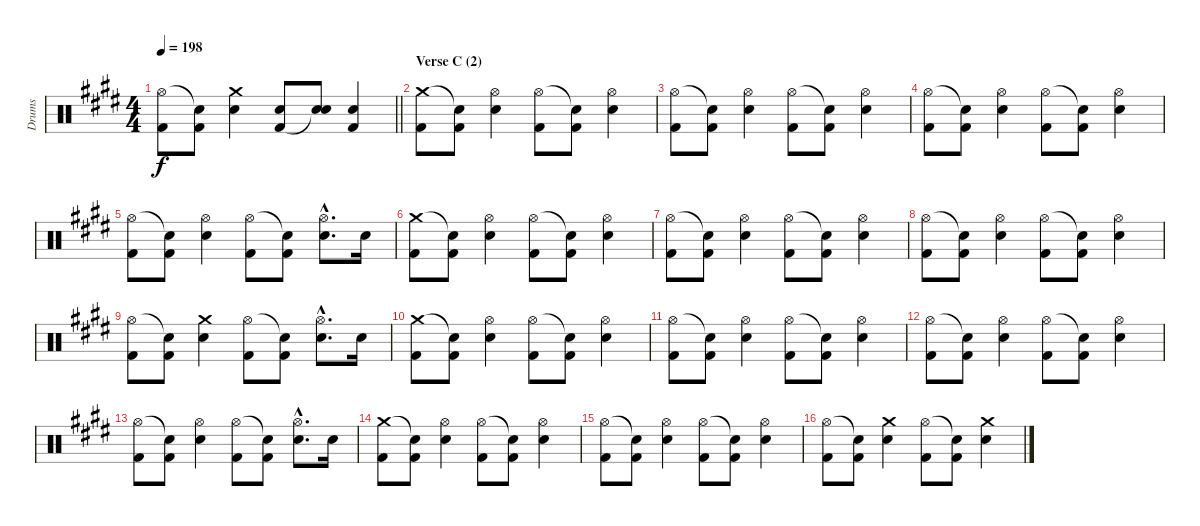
\track ("Drums" "Drums") {instrument percussion}
\staff {score}
\articulation defaults
\ts (4 4)
\tempo 198
\clef neutral
\barLineRight lightlight
\ks c#minor
("Hi-Hat (open)" "Kick (hit) 2").8{dy f} ("Snare (hit)"{t} "Kick (hit) 2").8 ("Crash medium (hit)" "Electric Snare (hit)").4 ("Electric Snare (hit)" "Kick (hit) 2").8 ("Electric Snare (hit)" "Snare (hit)"{t}).8 ("Electric Snare (hit)" "Kick (hit) 2").4 |
\section ("" "Verse C (2)")
("Crash medium (hit)" "Kick (hit) 2").8 ("Snare (hit)"{t} "Kick (hit) 2").8 ("Hi-Hat (open)" "Electric Snare (hit)").4 ("Hi-Hat (open)" "Kick (hit) 2").8 ("Snare (hit)"{t} "Kick (hit) 2").8 ("Hi-Hat (open)" "Electric Snare (hit)").4 |
("Hi-Hat (open)" "Kick (hit) 2").8 ("Snare (hit)"{t} "Kick (hit) 2").8 ("Hi-Hat (open)" "Electric Snare (hit)").4 ("Hi-Hat (open)" "Kick (hit) 2").8 ("Snare (hit)"{t} "Kick (hit) 2").8 ("Hi-Hat (open)" "Electric Snare (hit)").4 |
("Hi-Hat (open)" "Kick (hit) 2").8 ("Snare (hit)"{t} "Kick (hit) 2").8 ("Hi-Hat (open)" "Electric Snare (hit)").4 ("Hi-Hat (open)" "Kick (hit) 2").8 ("Snare (hit)"{t} "Kick (hit) 2").8 ("Hi-Hat (open)" "Electric Snare (hit)").4 |
("Hi-Hat (open)" "Kick (hit) 2").8 ("Snare (hit)"{t} "Kick (hit) 2").8 ("Hi-Hat (open)" "Electric Snare (hit)").4 ("Hi-Hat (open)" "Kick (hit) 2").8 ("Snare (hit)"{t} "Kick (hit) 2").8 ("Hi-Hat (open)"{hac} "Electric Snare (hit)"{hac}).8{d} "Electric Snare (hit)".16 |
("Crash medium (hit)" "Kick (hit) 2").8 ("Snare (hit)"{t} "Kick (hit) 2").8 ("Hi-Hat (open)" "Electric Snare (hit)").4 ("Hi-Hat (open)" "Kick (hit) 2").8 ("Snare (hit)"{t} "Kick (hit) 2").8 ("Hi-Hat (open)" "Electric Snare (hit)").4 |
("Hi-Hat (open)" "Kick (hit) 2").8 ("Snare (hit)"{t} "Kick (hit) 2").8 ("Hi-Hat (open)" "Electric Snare (hit)").4 ("Hi-Hat (open)" "Kick (hit) 2").8 ("Snare (hit)"{t} "Kick (hit) 2").8 ("Hi-Hat (open)" "Electric Snare (hit)").4 |
("Hi-Hat (open)" "Kick (hit) 2").8 ("Snare (hit)"{t} "Kick (hit) 2").8 ("Hi-Hat (open)" "Electric Snare (hit)").4 ("Hi-Hat (open)" "Kick (hit) 2").8 ("Snare (hit)"{t} "Kick (hit) 2").8 ("Hi-Hat (open)" "Electric Snare (hit)").4 |
("Hi-Hat (open)" "Kick (hit) 2").8 ("Snare (hit)"{t} "Kick (hit) 2").8 ("Crash medium (hit)" "Electric Snare (hit)").4 ("Hi-Hat (open)" "Kick (hit) 2").8 ("Snare (hit)"{t} "Kick (hit) 2").8 ("Hi-Hat (open)"{hac} "Electric Snare (hit)"{hac}).8{d} "Electric Snare (hit)".16 |
("Crash medium (hit)" "Kick (hit) 2").8 ("Snare (hit)"{t} "Kick (hit) 2").8 ("Hi-Hat (open)" "Electric Snare (hit)").4 ("Hi-Hat (open)" "Kick (hit) 2").8 ("Snare (hit)"{t} "Kick (hit) 2").8 ("Hi-Hat (open)" "Electric Snare (hit)").4 |
("Hi-Hat (open)" "Kick (hit) 2").8 ("Snare (hit)"{t} "Kick (hit) 2").8 ("Hi-Hat (open)" "Electric Snare (hit)").4 ("Hi-Hat (open)" "Kick (hit) 2").8 ("Snare (hit)"{t} "Kick (hit) 2").8 ("Hi-Hat (open)" "Electric Snare (hit)").4 |
("Hi-Hat (open)" "Kick (hit) 2").8 ("Snare (hit)"{t} "Kick (hit) 2").8 ("Hi-Hat (open)" "Electric Snare (hit)").4 ("Hi-Hat (open)" "Kick (hit) 2").8 ("Snare (hit)"{t} "Kick (hit) 2").8 ("Hi-Hat (open)" "Electric Snare (hit)").4 |
("Hi-Hat (open)" "Kick (hit) 2").8 ("Snare (hit)"{t} "Kick (hit) 2").8 ("Hi-Hat (open)" "Electric Snare (hit)").4 ("Hi-Hat (open)" "Kick (hit) 2").8 ("Snare (hit)"{t} "Kick (hit) 2").8 ("Hi-Hat (open)"{hac} "Electric Snare (hit)"{hac}).8{d} "Electric Snare (hit)".16 |
("Crash medium (hit)" "Kick (hit) 2").8 ("Snare (hit)"{t} "Kick (hit) 2").8 ("Hi-Hat (open)" "Electric Snare (hit)").4 ("Hi-Hat (open)" "Kick (hit) 2").8 ("Snare (hit)"{t} "Kick (hit) 2").8 ("Hi-Hat (open)" "Electric Snare (hit)").4 |
("Hi-Hat (open)" "Kick (hit) 2").8 ("Snare (hit)"{t} "Kick (hit) 2").8 ("Hi-Hat (open)" "Electric Snare (hit)").4 ("Hi-Hat (open)" "Kick (hit) 2").8 ("Snare (hit)"{t} "Kick (hit) 2").8 ("Hi-Hat (open)" "Electric Snare (hit)").4 |
("Hi-Hat (open)" "Kick (hit) 2").8 ("Snare (hit)"{t} "Kick (hit) 2").8 ("Crash medium (hit)" "Electric Snare (hit)").4 ("Hi-Hat (open)" "Kick (hit) 2").8 ("Snare (hit)"{t} "Kick (hit) 2").8 ("Crash medium (hit)" "Electric Snare (hit)").4
